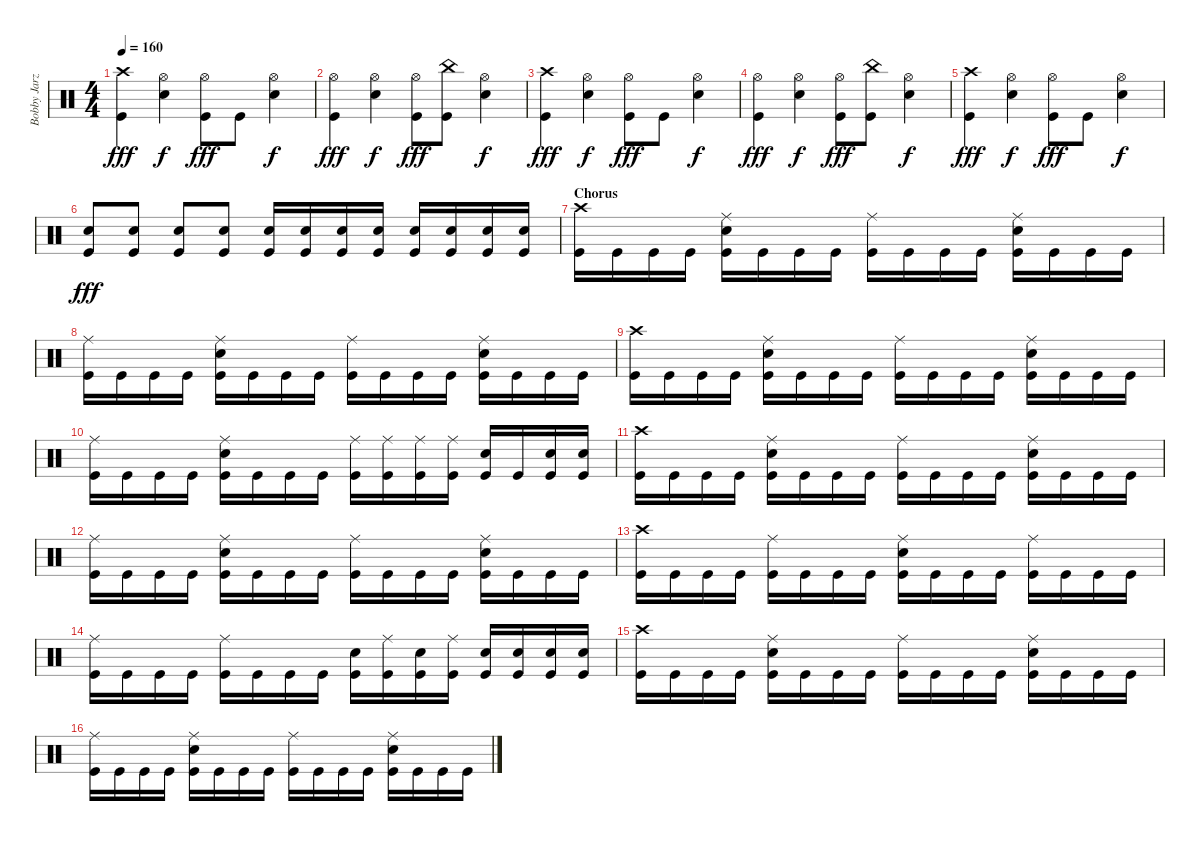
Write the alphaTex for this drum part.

\track ("Bobby Jarzombek" "Bobby Jarz") {instrument percussion}
\staff {score}
\articulation defaults
\ts (4 4)
\tempo 160
\clef neutral
\ks c
("Crash high (hit)" "Kick (hit)").4{dy fff} ("Hi-Hat (open)" "Electric Snare (hit)").4{dy f} ("Hi-Hat (open)" "Kick (hit)").8{dy fff} "Kick (hit)".8 ("Hi-Hat (open)" "Electric Snare (hit)").4{dy f} |
("Hi-Hat (open)" "Kick (hit)").4{dy fff} ("Hi-Hat (open)" "Electric Snare (hit)").4{dy f} ("Hi-Hat (open)" "Kick (hit)").8{dy fff} ("China (hit)" "Kick (hit)").8 ("Hi-Hat (open)" "Electric Snare (hit)").4{dy f} |
("Crash high (hit)" "Kick (hit)").4{dy fff} ("Hi-Hat (open)" "Electric Snare (hit)").4{dy f} ("Hi-Hat (open)" "Kick (hit)").8{dy fff} "Kick (hit)".8 ("Hi-Hat (open)" "Electric Snare (hit)").4{dy f} |
("Hi-Hat (open)" "Kick (hit)").4{dy fff} ("Hi-Hat (open)" "Electric Snare (hit)").4{dy f} ("Hi-Hat (open)" "Kick (hit)").8{dy fff} ("China (hit)" "Kick (hit)").8 ("Hi-Hat (open)" "Electric Snare (hit)").4{dy f} |
("Crash high (hit)" "Kick (hit)").4{dy fff} ("Hi-Hat (open)" "Electric Snare (hit)").4{dy f} ("Hi-Hat (open)" "Kick (hit)").8{dy fff} "Kick (hit)".8 ("Hi-Hat (open)" "Electric Snare (hit)").4{dy f} |
("Electric Snare (hit)" "Kick (hit)").8{dy fff} ("Electric Snare (hit)" "Kick (hit)").8 ("Electric Snare (hit)" "Kick (hit)").8 ("Electric Snare (hit)" "Kick (hit)").8 ("Electric Snare (hit)" "Kick (hit)").16 ("Electric Snare (hit)" "Kick (hit)").16 ("Electric Snare (hit)" "Kick (hit)").16 ("Electric Snare (hit)" "Kick (hit)").16 ("Electric Snare (hit)" "Kick (hit)").16 ("Electric Snare (hit)" "Kick (hit)").16 ("Electric Snare (hit)" "Kick (hit)").16 ("Electric Snare (hit)" "Kick (hit)").16 |
\section ("" "Chorus")
("Crash high (hit)" "Kick (hit)").16 "Kick (hit)".16 "Kick (hit)".16 "Kick (hit)".16 ("Ride (middle)" "Electric Snare (hit)" "Kick (hit)").16 "Kick (hit)".16 "Kick (hit)".16 "Kick (hit)".16 ("Ride (middle)" "Kick (hit)").16 "Kick (hit)".16 "Kick (hit)".16 "Kick (hit)".16 ("Ride (middle)" "Electric Snare (hit)" "Kick (hit)").16 "Kick (hit)".16 "Kick (hit)".16 "Kick (hit)".16 |
("Ride (middle)" "Kick (hit)").16 "Kick (hit)".16 "Kick (hit)".16 "Kick (hit)".16 ("Ride (middle)" "Electric Snare (hit)" "Kick (hit)").16 "Kick (hit)".16 "Kick (hit)".16 "Kick (hit)".16 ("Ride (middle)" "Kick (hit)").16 "Kick (hit)".16 "Kick (hit)".16 "Kick (hit)".16 ("Ride (middle)" "Electric Snare (hit)" "Kick (hit)").16 "Kick (hit)".16 "Kick (hit)".16 "Kick (hit)".16 |
("Crash high (hit)" "Kick (hit)").16 "Kick (hit)".16 "Kick (hit)".16 "Kick (hit)".16 ("Ride (middle)" "Electric Snare (hit)" "Kick (hit)").16 "Kick (hit)".16 "Kick (hit)".16 "Kick (hit)".16 ("Ride (middle)" "Kick (hit)").16 "Kick (hit)".16 "Kick (hit)".16 "Kick (hit)".16 ("Ride (middle)" "Electric Snare (hit)" "Kick (hit)").16 "Kick (hit)".16 "Kick (hit)".16 "Kick (hit)".16 |
("Ride (middle)" "Kick (hit)").16 "Kick (hit)".16 "Kick (hit)".16 "Kick (hit)".16 ("Ride (middle)" "Electric Snare (hit)" "Kick (hit)").16 "Kick (hit)".16 "Kick (hit)".16 "Kick (hit)".16 ("Ride (middle)" "Kick (hit)").16 ("Ride (middle)" "Kick (hit)").16 ("Ride (middle)" "Kick (hit)").16 ("Ride (middle)" "Kick (hit)").16 ("Electric Snare (hit)" "Kick (hit)").16 "Kick (hit)".16 ("Electric Snare (hit)" "Kick (hit)").16 ("Electric Snare (hit)" "Kick (hit)").16 |
("Crash high (hit)" "Kick (hit)").16 "Kick (hit)".16 "Kick (hit)".16 "Kick (hit)".16 ("Ride (middle)" "Electric Snare (hit)" "Kick (hit)").16 "Kick (hit)".16 "Kick (hit)".16 "Kick (hit)".16 ("Ride (middle)" "Kick (hit)").16 "Kick (hit)".16 "Kick (hit)".16 "Kick (hit)".16 ("Ride (middle)" "Electric Snare (hit)" "Kick (hit)").16 "Kick (hit)".16 "Kick (hit)".16 "Kick (hit)".16 |
("Ride (middle)" "Kick (hit)").16 "Kick (hit)".16 "Kick (hit)".16 "Kick (hit)".16 ("Ride (middle)" "Electric Snare (hit)" "Kick (hit)").16 "Kick (hit)".16 "Kick (hit)".16 "Kick (hit)".16 ("Ride (middle)" "Kick (hit)").16 "Kick (hit)".16 "Kick (hit)".16 "Kick (hit)".16 ("Ride (middle)" "Electric Snare (hit)" "Kick (hit)").16 "Kick (hit)".16 "Kick (hit)".16 "Kick (hit)".16 |
("Crash high (hit)" "Kick (hit)").16 "Kick (hit)".16 "Kick (hit)".16 "Kick (hit)".16 ("Ride (middle)" "Kick (hit)").16 "Kick (hit)".16 "Kick (hit)".16 "Kick (hit)".16 ("Ride (middle)" "Electric Snare (hit)" "Kick (hit)").16 "Kick (hit)".16 "Kick (hit)".16 "Kick (hit)".16 ("Ride (middle)" "Kick (hit)").16 "Kick (hit)".16 "Kick (hit)".16 "Kick (hit)".16 |
("Ride (middle)" "Kick (hit)").16 "Kick (hit)".16 "Kick (hit)".16 "Kick (hit)".16 ("Ride (middle)" "Kick (hit)").16 "Kick (hit)".16 "Kick (hit)".16 "Kick (hit)".16 ("Electric Snare (hit)" "Kick (hit)").16 ("Ride (middle)" "Kick (hit)").16 ("Electric Snare (hit)" "Kick (hit)").16 ("Ride (middle)" "Kick (hit)").16 ("Electric Snare (hit)" "Kick (hit)").16 ("Electric Snare (hit)" "Kick (hit)").16 ("Electric Snare (hit)" "Kick (hit)").16 ("Electric Snare (hit)" "Kick (hit)").16 |
("Crash high (hit)" "Kick (hit)").16 "Kick (hit)".16 "Kick (hit)".16 "Kick (hit)".16 ("Ride (middle)" "Electric Snare (hit)" "Kick (hit)").16 "Kick (hit)".16 "Kick (hit)".16 "Kick (hit)".16 ("Ride (middle)" "Kick (hit)").16 "Kick (hit)".16 "Kick (hit)".16 "Kick (hit)".16 ("Ride (middle)" "Electric Snare (hit)" "Kick (hit)").16 "Kick (hit)".16 "Kick (hit)".16 "Kick (hit)".16 |
("Ride (middle)" "Kick (hit)").16 "Kick (hit)".16 "Kick (hit)".16 "Kick (hit)".16 ("Ride (middle)" "Electric Snare (hit)" "Kick (hit)").16 "Kick (hit)".16 "Kick (hit)".16 "Kick (hit)".16 ("Ride (middle)" "Kick (hit)").16 "Kick (hit)".16 "Kick (hit)".16 "Kick (hit)".16 ("Ride (middle)" "Electric Snare (hit)" "Kick (hit)").16 "Kick (hit)".16 "Kick (hit)".16 "Kick (hit)".16
